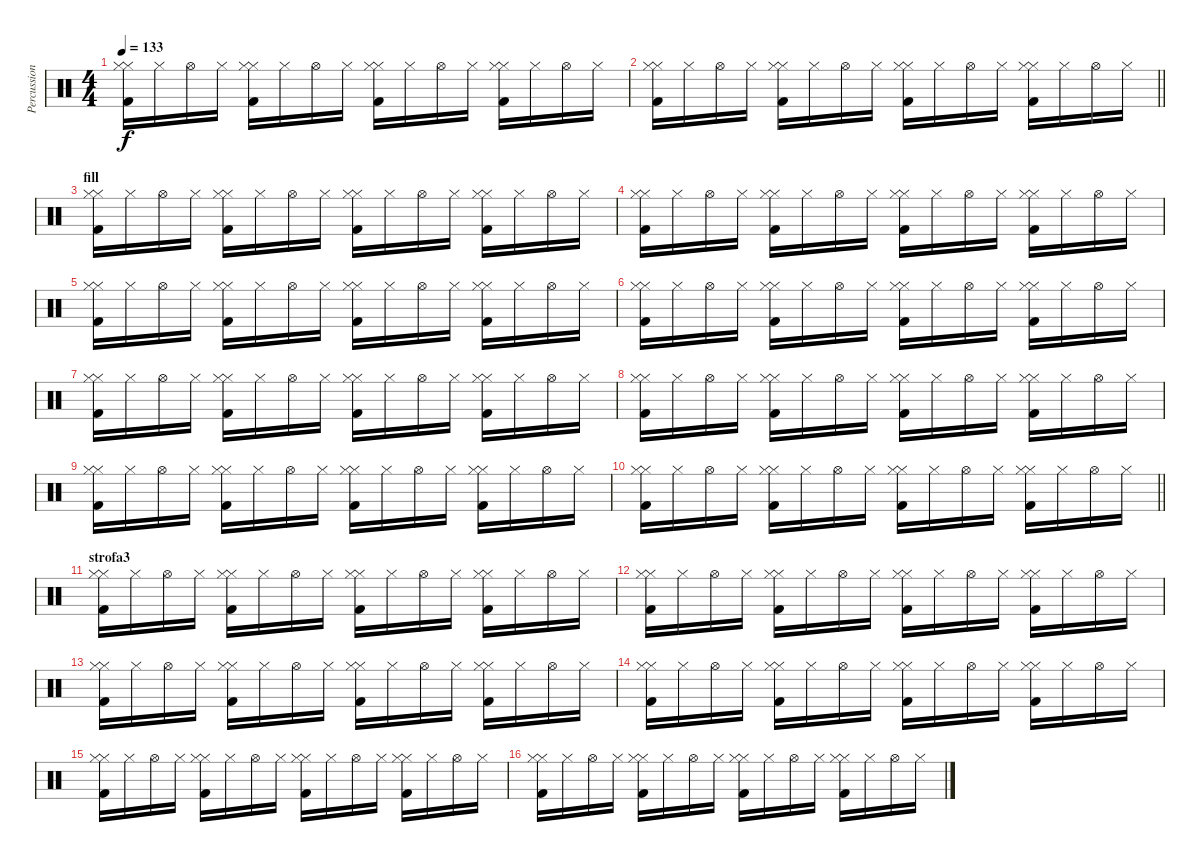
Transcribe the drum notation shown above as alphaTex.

\track ("Percussioni" "Percussion") {instrument percussion}
\staff {score}
\articulation defaults
\ts (4 4)
\tempo 133
\clef neutral
\ks c
("Hi-Hat (closed)" "Kick (hit) 2" "Hi-Hat (closed)").16{dy f} "Hi-Hat (closed)".16 "Hi-Hat (open)".16 "Hi-Hat (closed)".16 ("Hi-Hat (closed)" "Kick (hit) 2" "Hi-Hat (closed)").16 "Hi-Hat (closed)".16 "Hi-Hat (open)".16 "Hi-Hat (closed)".16 ("Hi-Hat (closed)" "Kick (hit) 2" "Hi-Hat (closed)").16 "Hi-Hat (closed)".16 "Hi-Hat (open)".16 "Hi-Hat (closed)".16 ("Hi-Hat (closed)" "Kick (hit) 2" "Hi-Hat (closed)").16 "Hi-Hat (closed)".16 "Hi-Hat (open)".16 "Hi-Hat (closed)".16 |
\barLineRight lightlight
("Hi-Hat (closed)" "Kick (hit) 2" "Hi-Hat (closed)").16 "Hi-Hat (closed)".16 "Hi-Hat (open)".16 "Hi-Hat (closed)".16 ("Hi-Hat (closed)" "Kick (hit) 2" "Hi-Hat (closed)").16 "Hi-Hat (closed)".16 "Hi-Hat (open)".16 "Hi-Hat (closed)".16 ("Hi-Hat (closed)" "Kick (hit) 2" "Hi-Hat (closed)").16 "Hi-Hat (closed)".16 "Hi-Hat (open)".16 "Hi-Hat (closed)".16 ("Hi-Hat (closed)" "Kick (hit) 2" "Hi-Hat (closed)").16 "Hi-Hat (closed)".16 "Hi-Hat (open)".16 "Hi-Hat (closed)".16 |
\section ("" "fill")
("Hi-Hat (closed)" "Kick (hit) 2" "Hi-Hat (closed)").16 "Hi-Hat (closed)".16 "Hi-Hat (open)".16 "Hi-Hat (closed)".16 ("Hi-Hat (closed)" "Kick (hit) 2" "Hi-Hat (closed)").16 "Hi-Hat (closed)".16 "Hi-Hat (open)".16 "Hi-Hat (closed)".16 ("Hi-Hat (closed)" "Kick (hit) 2" "Hi-Hat (closed)").16 "Hi-Hat (closed)".16 "Hi-Hat (open)".16 "Hi-Hat (closed)".16 ("Hi-Hat (closed)" "Kick (hit) 2" "Hi-Hat (closed)").16 "Hi-Hat (closed)".16 "Hi-Hat (open)".16 "Hi-Hat (closed)".16 |
("Hi-Hat (closed)" "Kick (hit) 2" "Hi-Hat (closed)").16 "Hi-Hat (closed)".16 "Hi-Hat (open)".16 "Hi-Hat (closed)".16 ("Hi-Hat (closed)" "Kick (hit) 2" "Hi-Hat (closed)").16 "Hi-Hat (closed)".16 "Hi-Hat (open)".16 "Hi-Hat (closed)".16 ("Hi-Hat (closed)" "Kick (hit) 2" "Hi-Hat (closed)").16 "Hi-Hat (closed)".16 "Hi-Hat (open)".16 "Hi-Hat (closed)".16 ("Hi-Hat (closed)" "Kick (hit) 2" "Hi-Hat (closed)").16 "Hi-Hat (closed)".16 "Hi-Hat (open)".16 "Hi-Hat (closed)".16 |
("Hi-Hat (closed)" "Kick (hit) 2" "Hi-Hat (closed)").16 "Hi-Hat (closed)".16 "Hi-Hat (open)".16 "Hi-Hat (closed)".16 ("Hi-Hat (closed)" "Kick (hit) 2" "Hi-Hat (closed)").16 "Hi-Hat (closed)".16 "Hi-Hat (open)".16 "Hi-Hat (closed)".16 ("Hi-Hat (closed)" "Kick (hit) 2" "Hi-Hat (closed)").16 "Hi-Hat (closed)".16 "Hi-Hat (open)".16 "Hi-Hat (closed)".16 ("Hi-Hat (closed)" "Kick (hit) 2" "Hi-Hat (closed)").16 "Hi-Hat (closed)".16 "Hi-Hat (open)".16 "Hi-Hat (closed)".16 |
("Hi-Hat (closed)" "Kick (hit) 2" "Hi-Hat (closed)").16 "Hi-Hat (closed)".16 "Hi-Hat (open)".16 "Hi-Hat (closed)".16 ("Hi-Hat (closed)" "Kick (hit) 2" "Hi-Hat (closed)").16 "Hi-Hat (closed)".16 "Hi-Hat (open)".16 "Hi-Hat (closed)".16 ("Hi-Hat (closed)" "Kick (hit) 2" "Hi-Hat (closed)").16 "Hi-Hat (closed)".16 "Hi-Hat (open)".16 "Hi-Hat (closed)".16 ("Hi-Hat (closed)" "Kick (hit) 2" "Hi-Hat (closed)").16 "Hi-Hat (closed)".16 "Hi-Hat (open)".16 "Hi-Hat (closed)".16 |
("Hi-Hat (closed)" "Kick (hit) 2" "Hi-Hat (closed)").16 "Hi-Hat (closed)".16 "Hi-Hat (open)".16 "Hi-Hat (closed)".16 ("Hi-Hat (closed)" "Kick (hit) 2" "Hi-Hat (closed)").16 "Hi-Hat (closed)".16 "Hi-Hat (open)".16 "Hi-Hat (closed)".16 ("Hi-Hat (closed)" "Kick (hit) 2" "Hi-Hat (closed)").16 "Hi-Hat (closed)".16 "Hi-Hat (open)".16 "Hi-Hat (closed)".16 ("Hi-Hat (closed)" "Kick (hit) 2" "Hi-Hat (closed)").16 "Hi-Hat (closed)".16 "Hi-Hat (open)".16 "Hi-Hat (closed)".16 |
("Hi-Hat (closed)" "Kick (hit) 2" "Hi-Hat (closed)").16 "Hi-Hat (closed)".16 "Hi-Hat (open)".16 "Hi-Hat (closed)".16 ("Hi-Hat (closed)" "Kick (hit) 2" "Hi-Hat (closed)").16 "Hi-Hat (closed)".16 "Hi-Hat (open)".16 "Hi-Hat (closed)".16 ("Hi-Hat (closed)" "Kick (hit) 2" "Hi-Hat (closed)").16 "Hi-Hat (closed)".16 "Hi-Hat (open)".16 "Hi-Hat (closed)".16 ("Hi-Hat (closed)" "Kick (hit) 2" "Hi-Hat (closed)").16 "Hi-Hat (closed)".16 "Hi-Hat (open)".16 "Hi-Hat (closed)".16 |
("Hi-Hat (closed)" "Kick (hit) 2" "Hi-Hat (closed)").16 "Hi-Hat (closed)".16 "Hi-Hat (open)".16 "Hi-Hat (closed)".16 ("Hi-Hat (closed)" "Kick (hit) 2" "Hi-Hat (closed)").16 "Hi-Hat (closed)".16 "Hi-Hat (open)".16 "Hi-Hat (closed)".16 ("Hi-Hat (closed)" "Kick (hit) 2" "Hi-Hat (closed)").16 "Hi-Hat (closed)".16 "Hi-Hat (open)".16 "Hi-Hat (closed)".16 ("Hi-Hat (closed)" "Kick (hit) 2" "Hi-Hat (closed)").16 "Hi-Hat (closed)".16 "Hi-Hat (open)".16 "Hi-Hat (closed)".16 |
\barLineRight lightlight
("Hi-Hat (closed)" "Kick (hit) 2" "Hi-Hat (closed)").16 "Hi-Hat (closed)".16 "Hi-Hat (open)".16 "Hi-Hat (closed)".16 ("Hi-Hat (closed)" "Kick (hit) 2" "Hi-Hat (closed)").16 "Hi-Hat (closed)".16 "Hi-Hat (open)".16 "Hi-Hat (closed)".16 ("Hi-Hat (closed)" "Kick (hit) 2" "Hi-Hat (closed)").16 "Hi-Hat (closed)".16 "Hi-Hat (open)".16 "Hi-Hat (closed)".16 ("Hi-Hat (closed)" "Kick (hit) 2" "Hi-Hat (closed)").16 "Hi-Hat (closed)".16 "Hi-Hat (open)".16 "Hi-Hat (closed)".16 |
\section ("" "strofa3")
("Hi-Hat (closed)" "Kick (hit) 2" "Hi-Hat (closed)").16 "Hi-Hat (closed)".16 "Hi-Hat (open)".16 "Hi-Hat (closed)".16 ("Hi-Hat (closed)" "Kick (hit) 2" "Hi-Hat (closed)").16 "Hi-Hat (closed)".16 "Hi-Hat (open)".16 "Hi-Hat (closed)".16 ("Hi-Hat (closed)" "Kick (hit) 2" "Hi-Hat (closed)").16 "Hi-Hat (closed)".16 "Hi-Hat (open)".16 "Hi-Hat (closed)".16 ("Hi-Hat (closed)" "Kick (hit) 2" "Hi-Hat (closed)").16 "Hi-Hat (closed)".16 "Hi-Hat (open)".16 "Hi-Hat (closed)".16 |
("Hi-Hat (closed)" "Kick (hit) 2" "Hi-Hat (closed)").16 "Hi-Hat (closed)".16 "Hi-Hat (open)".16 "Hi-Hat (closed)".16 ("Hi-Hat (closed)" "Kick (hit) 2" "Hi-Hat (closed)").16 "Hi-Hat (closed)".16 "Hi-Hat (open)".16 "Hi-Hat (closed)".16 ("Hi-Hat (closed)" "Kick (hit) 2" "Hi-Hat (closed)").16 "Hi-Hat (closed)".16 "Hi-Hat (open)".16 "Hi-Hat (closed)".16 ("Hi-Hat (closed)" "Kick (hit) 2" "Hi-Hat (closed)").16 "Hi-Hat (closed)".16 "Hi-Hat (open)".16 "Hi-Hat (closed)".16 |
("Hi-Hat (closed)" "Kick (hit) 2" "Hi-Hat (closed)").16 "Hi-Hat (closed)".16 "Hi-Hat (open)".16 "Hi-Hat (closed)".16 ("Hi-Hat (closed)" "Kick (hit) 2" "Hi-Hat (closed)").16 "Hi-Hat (closed)".16 "Hi-Hat (open)".16 "Hi-Hat (closed)".16 ("Hi-Hat (closed)" "Kick (hit) 2" "Hi-Hat (closed)").16 "Hi-Hat (closed)".16 "Hi-Hat (open)".16 "Hi-Hat (closed)".16 ("Hi-Hat (closed)" "Kick (hit) 2" "Hi-Hat (closed)").16 "Hi-Hat (closed)".16 "Hi-Hat (open)".16 "Hi-Hat (closed)".16 |
("Hi-Hat (closed)" "Kick (hit) 2" "Hi-Hat (closed)").16 "Hi-Hat (closed)".16 "Hi-Hat (open)".16 "Hi-Hat (closed)".16 ("Hi-Hat (closed)" "Kick (hit) 2" "Hi-Hat (closed)").16 "Hi-Hat (closed)".16 "Hi-Hat (open)".16 "Hi-Hat (closed)".16 ("Hi-Hat (closed)" "Kick (hit) 2" "Hi-Hat (closed)").16 "Hi-Hat (closed)".16 "Hi-Hat (open)".16 "Hi-Hat (closed)".16 ("Hi-Hat (closed)" "Kick (hit) 2" "Hi-Hat (closed)").16 "Hi-Hat (closed)".16 "Hi-Hat (open)".16 "Hi-Hat (closed)".16 |
("Hi-Hat (closed)" "Kick (hit) 2" "Hi-Hat (closed)").16 "Hi-Hat (closed)".16 "Hi-Hat (open)".16 "Hi-Hat (closed)".16 ("Hi-Hat (closed)" "Kick (hit) 2" "Hi-Hat (closed)").16 "Hi-Hat (closed)".16 "Hi-Hat (open)".16 "Hi-Hat (closed)".16 ("Hi-Hat (closed)" "Kick (hit) 2" "Hi-Hat (closed)").16 "Hi-Hat (closed)".16 "Hi-Hat (open)".16 "Hi-Hat (closed)".16 ("Hi-Hat (closed)" "Kick (hit) 2" "Hi-Hat (closed)").16 "Hi-Hat (closed)".16 "Hi-Hat (open)".16 "Hi-Hat (closed)".16 |
("Hi-Hat (closed)" "Kick (hit) 2" "Hi-Hat (closed)").16 "Hi-Hat (closed)".16 "Hi-Hat (open)".16 "Hi-Hat (closed)".16 ("Hi-Hat (closed)" "Kick (hit) 2" "Hi-Hat (closed)").16 "Hi-Hat (closed)".16 "Hi-Hat (open)".16 "Hi-Hat (closed)".16 ("Hi-Hat (closed)" "Kick (hit) 2" "Hi-Hat (closed)").16 "Hi-Hat (closed)".16 "Hi-Hat (open)".16 "Hi-Hat (closed)".16 ("Hi-Hat (closed)" "Kick (hit) 2" "Hi-Hat (closed)").16 "Hi-Hat (closed)".16 "Hi-Hat (open)".16 "Hi-Hat (closed)".16
